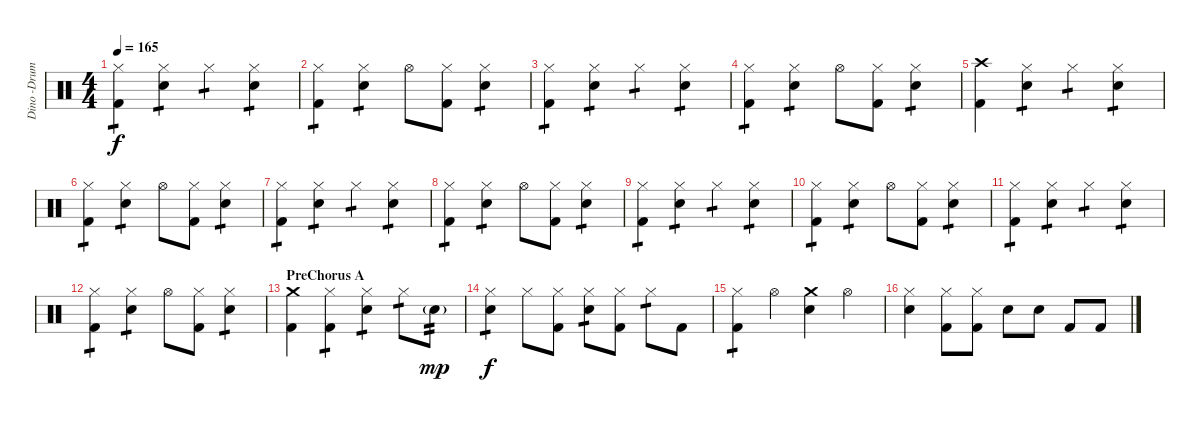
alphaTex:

\track ("Dino -Drums" "Dino -Drum") {instrument percussion}
\staff {score}
\articulation defaults
\ts (4 4)
\tempo 165
\clef neutral
\ks c
("Hi-Hat (closed)" "Kick (hit) 2").4{tp 1 dy f} ("Hi-Hat (closed)" "Electric Snare (hit)").4{tp 1} "Hi-Hat (closed)".4{tp 1} ("Hi-Hat (closed)" "Electric Snare (hit)").4{tp 1} |
("Hi-Hat (closed)" "Kick (hit) 2").4{tp 1} ("Hi-Hat (closed)" "Electric Snare (hit)").4{tp 1} "Hi-Hat (open)".8 ("Hi-Hat (closed)" "Kick (hit) 2").8 ("Hi-Hat (closed)" "Electric Snare (hit)").4{tp 1} |
("Hi-Hat (closed)" "Kick (hit) 2").4{tp 1} ("Hi-Hat (closed)" "Electric Snare (hit)").4{tp 1} "Hi-Hat (closed)".4{tp 1} ("Hi-Hat (closed)" "Electric Snare (hit)").4{tp 1} |
("Hi-Hat (closed)" "Kick (hit) 2").4{tp 1} ("Hi-Hat (closed)" "Electric Snare (hit)").4{tp 1} "Hi-Hat (open)".8 ("Hi-Hat (closed)" "Kick (hit) 2").8 ("Hi-Hat (closed)" "Electric Snare (hit)").4{tp 1} |
("Crash high (hit)" "Kick (hit) 2").4 ("Hi-Hat (closed)" "Electric Snare (hit)").4{tp 1} "Hi-Hat (closed)".4{tp 1} ("Hi-Hat (closed)" "Electric Snare (hit)").4{tp 1} |
("Hi-Hat (closed)" "Kick (hit) 2").4{tp 1} ("Hi-Hat (closed)" "Electric Snare (hit)").4{tp 1} "Hi-Hat (open)".8 ("Hi-Hat (closed)" "Kick (hit) 2").8 ("Hi-Hat (closed)" "Electric Snare (hit)").4{tp 1} |
("Hi-Hat (closed)" "Kick (hit) 2").4{tp 1} ("Hi-Hat (closed)" "Electric Snare (hit)").4{tp 1} "Hi-Hat (closed)".4{tp 1} ("Hi-Hat (closed)" "Electric Snare (hit)").4{tp 1} |
("Hi-Hat (closed)" "Kick (hit) 2").4{tp 1} ("Hi-Hat (closed)" "Electric Snare (hit)").4{tp 1} "Hi-Hat (open)".8 ("Hi-Hat (closed)" "Kick (hit) 2").8 ("Hi-Hat (closed)" "Electric Snare (hit)").4{tp 1} |
("Hi-Hat (closed)" "Kick (hit) 2").4{tp 1} ("Hi-Hat (closed)" "Electric Snare (hit)").4{tp 1} "Hi-Hat (closed)".4{tp 1} ("Hi-Hat (closed)" "Electric Snare (hit)").4{tp 1} |
("Hi-Hat (closed)" "Kick (hit) 2").4{tp 1} ("Hi-Hat (closed)" "Electric Snare (hit)").4{tp 1} "Hi-Hat (open)".8 ("Hi-Hat (closed)" "Kick (hit) 2").8 ("Hi-Hat (closed)" "Electric Snare (hit)").4{tp 1} |
("Hi-Hat (closed)" "Kick (hit) 2").4{tp 1} ("Hi-Hat (closed)" "Electric Snare (hit)").4{tp 1} "Hi-Hat (closed)".4{tp 1} ("Hi-Hat (closed)" "Electric Snare (hit)").4{tp 1} |
("Hi-Hat (closed)" "Kick (hit) 2").4{tp 1} ("Hi-Hat (closed)" "Electric Snare (hit)").4{tp 1} "Hi-Hat (open)".8 ("Hi-Hat (closed)" "Kick (hit) 2").8 ("Hi-Hat (closed)" "Electric Snare (hit)").4{tp 1} |
\section ("" "PreChorus A")
("Crash medium (hit)" "Kick (hit) 2").4 ("Hi-Hat (closed)" "Kick (hit) 2").4{tp 1} ("Hi-Hat (closed)" "Electric Snare (hit)").4{tp 1} "Hi-Hat (closed)".8{tp 1} "Electric Snare (hit)"{g}.8{tp 2 dy mp} |
("Hi-Hat (closed)" "Electric Snare (hit)").4{tp 1 dy f} "Hi-Hat (closed)".8 ("Hi-Hat (closed)" "Kick (hit) 2").8 ("Hi-Hat (closed)" "Electric Snare (hit)").8{tp 1} ("Hi-Hat (closed)" "Kick (hit) 2").8 "Hi-Hat (closed)".8{tp 1} "Kick (hit) 2".8 |
("Hi-Hat (closed)" "Kick (hit) 2").4{tp 1} "Hi-Hat (open)".4 ("Crash medium (hit)" "Electric Snare (hit)").4 "Hi-Hat (open)".4 |
("Hi-Hat (closed)" "Electric Snare (hit)").4 ("Hi-Hat (closed)" "Kick (hit) 2").8 ("Hi-Hat (closed)" "Kick (hit) 2").8 "Electric Snare (hit)".8 "Electric Snare (hit)".8 "Kick (hit) 2".8 "Kick (hit) 2".8
